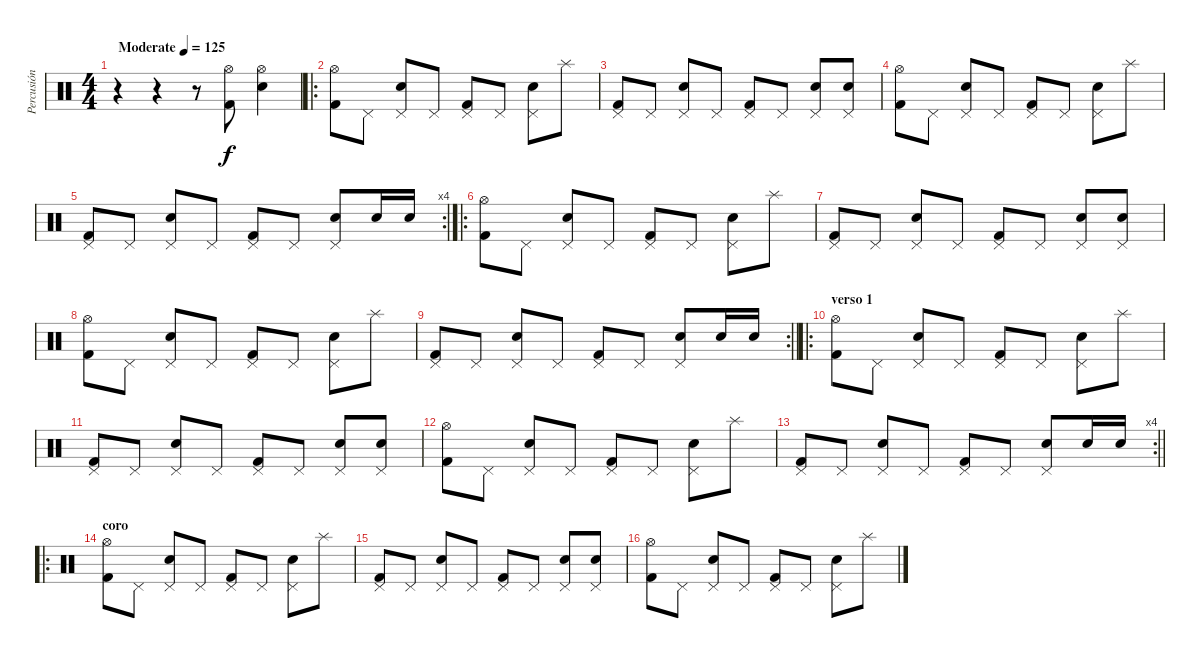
\track ("Percusión" "Percusión") {instrument percussion}
\staff {score}
\articulation defaults
\ts (4 4)
\tempo (125 "Moderate")
\clef neutral
\ks c
r.4{dy f} r.4 r.8 ("Hi-Hat (open)" "Kick (hit) 2").8 ("Hi-Hat (open)" "Snare (hit) 2").4 |
\ro
("Hi-Hat (open)" "Kick (hit) 2").8 "Pedal Hi-Hat (hit)".8 ("Pedal Hi-Hat (hit)" "Snare (hit) 2").8 "Pedal Hi-Hat (hit)".8 ("Pedal Hi-Hat (hit)" "Kick (hit) 2").8 "Pedal Hi-Hat (hit)".8 ("Pedal Hi-Hat (hit)" "Snare (hit) 2").8 "Splash (hit)".8 |
("Pedal Hi-Hat (hit)" "Kick (hit) 2").8 "Pedal Hi-Hat (hit)".8 ("Pedal Hi-Hat (hit)" "Snare (hit) 2").8 "Pedal Hi-Hat (hit)".8 ("Pedal Hi-Hat (hit)" "Kick (hit) 2").8 "Pedal Hi-Hat (hit)".8 ("Pedal Hi-Hat (hit)" "Snare (hit) 2").8 ("Pedal Hi-Hat (hit)" "Snare (hit) 2").8 |
("Hi-Hat (open)" "Kick (hit) 2").8 "Pedal Hi-Hat (hit)".8 ("Pedal Hi-Hat (hit)" "Snare (hit) 2").8 "Pedal Hi-Hat (hit)".8 ("Pedal Hi-Hat (hit)" "Kick (hit) 2").8 "Pedal Hi-Hat (hit)".8 ("Pedal Hi-Hat (hit)" "Snare (hit) 2").8 "Splash (hit)".8 |
\rc 4
("Pedal Hi-Hat (hit)" "Kick (hit) 2").8 "Pedal Hi-Hat (hit)".8 ("Pedal Hi-Hat (hit)" "Snare (hit) 2").8 "Pedal Hi-Hat (hit)".8 ("Pedal Hi-Hat (hit)" "Kick (hit) 2").8 "Pedal Hi-Hat (hit)".8 ("Pedal Hi-Hat (hit)" "Snare (hit) 2").8 "Snare (hit) 2".16 "Snare (hit) 2".16 |
\ro
("Hi-Hat (open)" "Kick (hit) 2").8 "Pedal Hi-Hat (hit)".8 ("Pedal Hi-Hat (hit)" "Snare (hit) 2").8 "Pedal Hi-Hat (hit)".8 ("Pedal Hi-Hat (hit)" "Kick (hit) 2").8 "Pedal Hi-Hat (hit)".8 ("Pedal Hi-Hat (hit)" "Snare (hit) 2").8 "Splash (hit)".8 |
("Pedal Hi-Hat (hit)" "Kick (hit) 2").8 "Pedal Hi-Hat (hit)".8 ("Pedal Hi-Hat (hit)" "Snare (hit) 2").8 "Pedal Hi-Hat (hit)".8 ("Pedal Hi-Hat (hit)" "Kick (hit) 2").8 "Pedal Hi-Hat (hit)".8 ("Pedal Hi-Hat (hit)" "Snare (hit) 2").8 ("Pedal Hi-Hat (hit)" "Snare (hit) 2").8 |
("Hi-Hat (open)" "Kick (hit) 2").8 "Pedal Hi-Hat (hit)".8 ("Pedal Hi-Hat (hit)" "Snare (hit) 2").8 "Pedal Hi-Hat (hit)".8 ("Pedal Hi-Hat (hit)" "Kick (hit) 2").8 "Pedal Hi-Hat (hit)".8 ("Pedal Hi-Hat (hit)" "Snare (hit) 2").8 "Splash (hit)".8 |
\rc 2
\barLineRight lightlight
("Pedal Hi-Hat (hit)" "Kick (hit) 2").8 "Pedal Hi-Hat (hit)".8 ("Pedal Hi-Hat (hit)" "Snare (hit) 2").8 "Pedal Hi-Hat (hit)".8 ("Pedal Hi-Hat (hit)" "Kick (hit) 2").8 "Pedal Hi-Hat (hit)".8 ("Pedal Hi-Hat (hit)" "Snare (hit) 2").8 "Snare (hit) 2".16 "Snare (hit) 2".16 |
\ro
\section ("" "verso 1")
("Hi-Hat (open)" "Kick (hit) 2").8 "Pedal Hi-Hat (hit)".8 ("Pedal Hi-Hat (hit)" "Snare (hit) 2").8 "Pedal Hi-Hat (hit)".8 ("Pedal Hi-Hat (hit)" "Kick (hit) 2").8 "Pedal Hi-Hat (hit)".8 ("Pedal Hi-Hat (hit)" "Snare (hit) 2").8 "Splash (hit)".8 |
("Pedal Hi-Hat (hit)" "Kick (hit) 2").8 "Pedal Hi-Hat (hit)".8 ("Pedal Hi-Hat (hit)" "Snare (hit) 2").8 "Pedal Hi-Hat (hit)".8 ("Pedal Hi-Hat (hit)" "Kick (hit) 2").8 "Pedal Hi-Hat (hit)".8 ("Pedal Hi-Hat (hit)" "Snare (hit) 2").8 ("Pedal Hi-Hat (hit)" "Snare (hit) 2").8 |
("Hi-Hat (open)" "Kick (hit) 2").8 "Pedal Hi-Hat (hit)".8 ("Pedal Hi-Hat (hit)" "Snare (hit) 2").8 "Pedal Hi-Hat (hit)".8 ("Pedal Hi-Hat (hit)" "Kick (hit) 2").8 "Pedal Hi-Hat (hit)".8 ("Pedal Hi-Hat (hit)" "Snare (hit) 2").8 "Splash (hit)".8 |
\rc 4
\barLineRight lightlight
("Pedal Hi-Hat (hit)" "Kick (hit) 2").8 "Pedal Hi-Hat (hit)".8 ("Pedal Hi-Hat (hit)" "Snare (hit) 2").8 "Pedal Hi-Hat (hit)".8 ("Pedal Hi-Hat (hit)" "Kick (hit) 2").8 "Pedal Hi-Hat (hit)".8 ("Pedal Hi-Hat (hit)" "Snare (hit) 2").8 "Snare (hit) 2".16 "Snare (hit) 2".16 |
\ro
\section ("" "coro")
("Hi-Hat (open)" "Kick (hit) 2").8 "Pedal Hi-Hat (hit)".8 ("Pedal Hi-Hat (hit)" "Snare (hit) 2").8 "Pedal Hi-Hat (hit)".8 ("Pedal Hi-Hat (hit)" "Kick (hit) 2").8 "Pedal Hi-Hat (hit)".8 ("Pedal Hi-Hat (hit)" "Snare (hit) 2").8 "Splash (hit)".8 |
("Pedal Hi-Hat (hit)" "Kick (hit) 2").8 "Pedal Hi-Hat (hit)".8 ("Pedal Hi-Hat (hit)" "Snare (hit) 2").8 "Pedal Hi-Hat (hit)".8 ("Pedal Hi-Hat (hit)" "Kick (hit) 2").8 "Pedal Hi-Hat (hit)".8 ("Pedal Hi-Hat (hit)" "Snare (hit) 2").8 ("Pedal Hi-Hat (hit)" "Snare (hit) 2").8 |
("Hi-Hat (open)" "Kick (hit) 2").8 "Pedal Hi-Hat (hit)".8 ("Pedal Hi-Hat (hit)" "Snare (hit) 2").8 "Pedal Hi-Hat (hit)".8 ("Pedal Hi-Hat (hit)" "Kick (hit) 2").8 "Pedal Hi-Hat (hit)".8 ("Pedal Hi-Hat (hit)" "Snare (hit) 2").8 "Splash (hit)".8
